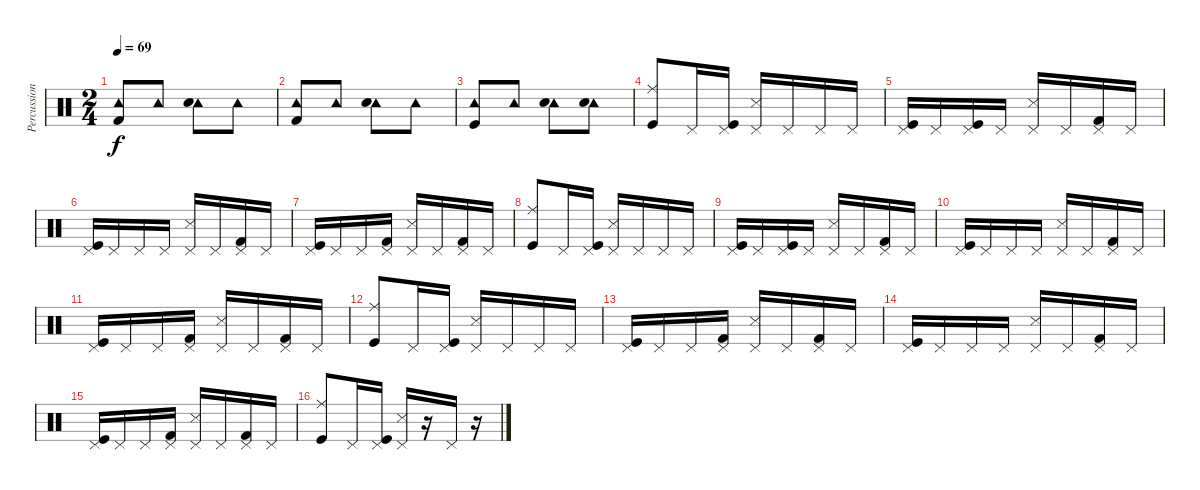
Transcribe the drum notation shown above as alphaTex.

\track ("Percussions" "Percussion") {instrument percussion}
\staff {score}
\articulation defaults
\ts (2 4)
\tempo 69
\clef neutral
\ks c
("Tambourine (hit)" "Kick (hit) 2").8{dy f} "Tambourine (hit)".8 ("Tambourine (hit)" "Electric Snare (hit)").8 "Tambourine (hit)".8 |
("Tambourine (hit)" "Kick (hit) 2").8 "Tambourine (hit)".8 ("Tambourine (hit)" "Electric Snare (hit)").8 "Tambourine (hit)".8 |
("Tambourine (hit)" "Kick (hit)").8 "Tambourine (hit)".8 ("Tambourine (hit)" "Electric Snare (hit)").8 ("Tambourine (hit)" "Electric Snare (hit)").8 |
("Ride (middle)" "Kick (hit)").8{volume 16} "Pedal Hi-Hat (hit)".16 ("Pedal Hi-Hat (hit)" "Kick (hit)").16 ("Pedal Hi-Hat (hit)" "Snare (side stick) 3").16 "Pedal Hi-Hat (hit)".16 "Pedal Hi-Hat (hit)".16 "Pedal Hi-Hat (hit)".16 |
("Pedal Hi-Hat (hit)" "Kick (hit)").16 "Pedal Hi-Hat (hit)".16 ("Pedal Hi-Hat (hit)" "Kick (hit)").16 "Pedal Hi-Hat (hit)".16 ("Pedal Hi-Hat (hit)" "Snare (side stick) 3").16 "Pedal Hi-Hat (hit)".16 ("Pedal Hi-Hat (hit)" "Kick (hit) 2").16 "Pedal Hi-Hat (hit)".16 |
("Pedal Hi-Hat (hit)" "Kick (hit)").16 "Pedal Hi-Hat (hit)".16 "Pedal Hi-Hat (hit)".16 "Pedal Hi-Hat (hit)".16 ("Pedal Hi-Hat (hit)" "Snare (side stick) 3").16 "Pedal Hi-Hat (hit)".16 ("Pedal Hi-Hat (hit)" "Kick (hit) 2").16 "Pedal Hi-Hat (hit)".16 |
("Pedal Hi-Hat (hit)" "Kick (hit)").16 "Pedal Hi-Hat (hit)".16 "Pedal Hi-Hat (hit)".16 ("Pedal Hi-Hat (hit)" "Kick (hit) 2").16 ("Pedal Hi-Hat (hit)" "Snare (side stick) 3").16 "Pedal Hi-Hat (hit)".16 ("Pedal Hi-Hat (hit)" "Kick (hit) 2").16 "Pedal Hi-Hat (hit)".16 |
("Ride (middle)" "Kick (hit)").8 "Pedal Hi-Hat (hit)".16 ("Pedal Hi-Hat (hit)" "Kick (hit)").16 ("Pedal Hi-Hat (hit)" "Snare (side stick) 3").16 "Pedal Hi-Hat (hit)".16 "Pedal Hi-Hat (hit)".16 "Pedal Hi-Hat (hit)".16 |
("Pedal Hi-Hat (hit)" "Kick (hit)").16 "Pedal Hi-Hat (hit)".16 ("Pedal Hi-Hat (hit)" "Kick (hit)").16 "Pedal Hi-Hat (hit)".16 ("Pedal Hi-Hat (hit)" "Snare (side stick) 3").16 "Pedal Hi-Hat (hit)".16 ("Pedal Hi-Hat (hit)" "Kick (hit) 2").16 "Pedal Hi-Hat (hit)".16 |
("Pedal Hi-Hat (hit)" "Kick (hit)").16 "Pedal Hi-Hat (hit)".16 "Pedal Hi-Hat (hit)".16 "Pedal Hi-Hat (hit)".16 ("Pedal Hi-Hat (hit)" "Snare (side stick) 3").16 "Pedal Hi-Hat (hit)".16 ("Pedal Hi-Hat (hit)" "Kick (hit) 2").16 "Pedal Hi-Hat (hit)".16 |
("Pedal Hi-Hat (hit)" "Kick (hit)").16 "Pedal Hi-Hat (hit)".16 "Pedal Hi-Hat (hit)".16 ("Pedal Hi-Hat (hit)" "Kick (hit) 2").16 ("Pedal Hi-Hat (hit)" "Snare (side stick) 3").16 "Pedal Hi-Hat (hit)".16 ("Pedal Hi-Hat (hit)" "Kick (hit) 2").16 "Pedal Hi-Hat (hit)".16 |
("Ride (middle)" "Kick (hit)").8 "Pedal Hi-Hat (hit)".16 ("Pedal Hi-Hat (hit)" "Kick (hit)").16 ("Pedal Hi-Hat (hit)" "Snare (side stick) 3").16 "Pedal Hi-Hat (hit)".16 "Pedal Hi-Hat (hit)".16 "Pedal Hi-Hat (hit)".16 |
("Pedal Hi-Hat (hit)" "Kick (hit)").16 "Pedal Hi-Hat (hit)".16 "Pedal Hi-Hat (hit)".16 ("Pedal Hi-Hat (hit)" "Kick (hit) 2").16 ("Pedal Hi-Hat (hit)" "Snare (side stick) 3").16 "Pedal Hi-Hat (hit)".16 ("Pedal Hi-Hat (hit)" "Kick (hit) 2").16 "Pedal Hi-Hat (hit)".16 |
("Pedal Hi-Hat (hit)" "Kick (hit)").16 "Pedal Hi-Hat (hit)".16 "Pedal Hi-Hat (hit)".16 "Pedal Hi-Hat (hit)".16 ("Pedal Hi-Hat (hit)" "Snare (side stick) 3").16 "Pedal Hi-Hat (hit)".16 ("Pedal Hi-Hat (hit)" "Kick (hit) 2").16 "Pedal Hi-Hat (hit)".16 |
("Pedal Hi-Hat (hit)" "Kick (hit)").16 "Pedal Hi-Hat (hit)".16 "Pedal Hi-Hat (hit)".16 ("Pedal Hi-Hat (hit)" "Kick (hit) 2").16 ("Pedal Hi-Hat (hit)" "Snare (side stick) 3").16 "Pedal Hi-Hat (hit)".16 ("Pedal Hi-Hat (hit)" "Kick (hit) 2").16 "Pedal Hi-Hat (hit)".16 |
("Ride (middle)" "Kick (hit)").8 "Pedal Hi-Hat (hit)".16 ("Pedal Hi-Hat (hit)" "Kick (hit)").16 ("Pedal Hi-Hat (hit)" "Snare (side stick) 3").16 r.16 "Pedal Hi-Hat (hit)".16 r.16
